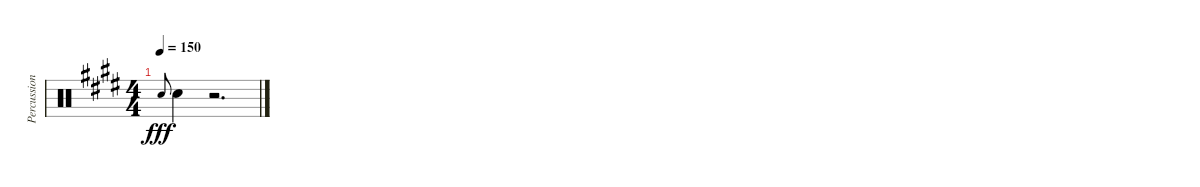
\track ("Percussion" "Percussion") {instrument percussion}
\staff {score}
\articulation defaults
\ts (4 4)
\tempo 150
\clef neutral
\ks e "Hand Clap (hit)".8{gr onbeat dy fff} "Hand Clap (hit)".4
r.2{d}
